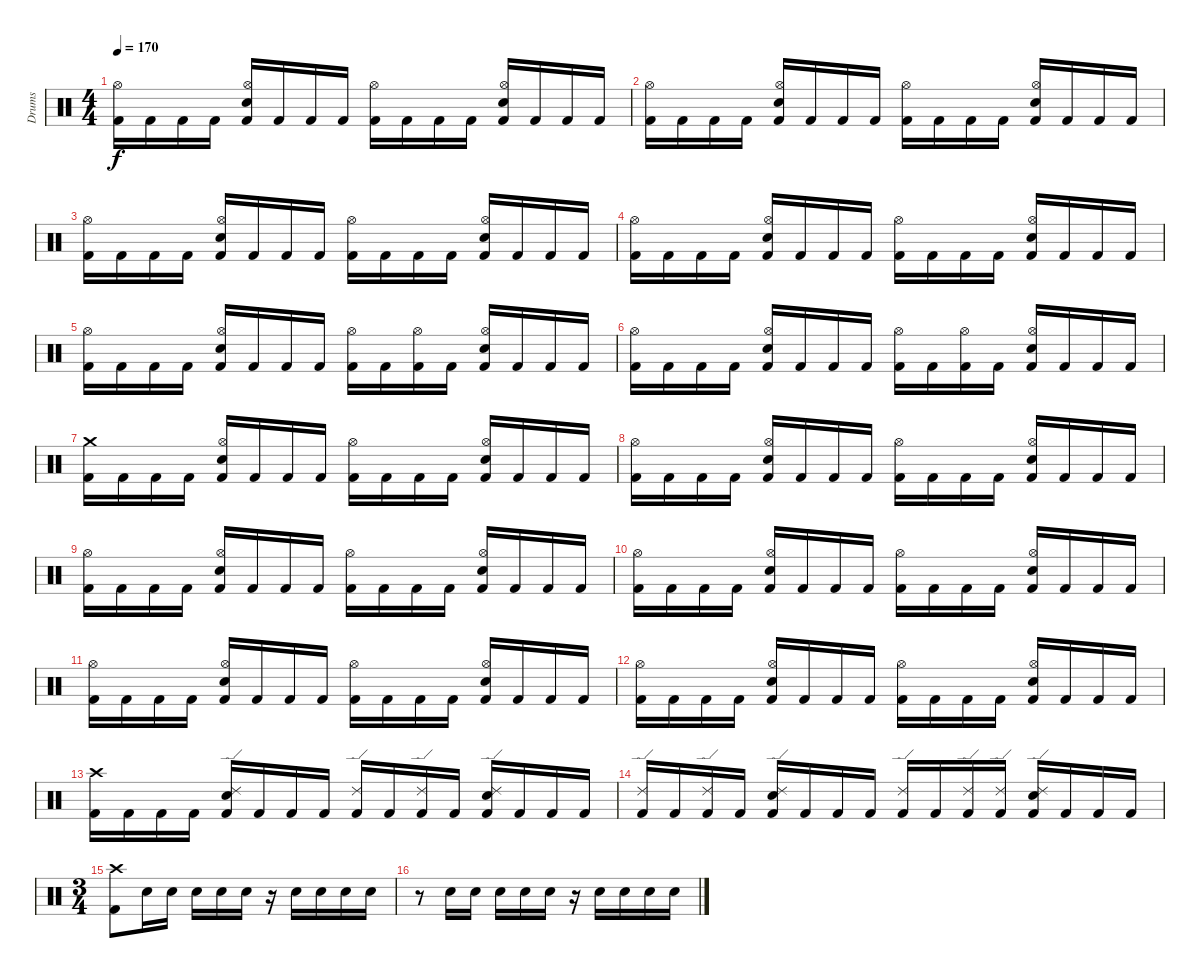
\track ("Drums" "Drums") {instrument percussion}
\staff {score}
\articulation defaults
\ts (4 4)
\tempo 170
\clef neutral
\ks c
("Kick (hit) 2" "Hi-Hat (open)").16{dy f} "Kick (hit) 2".16 "Kick (hit) 2".16 "Kick (hit) 2".16 ("Kick (hit) 2" "Snare (hit) 2" "Hi-Hat (open)").16 "Kick (hit) 2".16 "Kick (hit) 2".16 "Kick (hit) 2".16 ("Kick (hit) 2" "Hi-Hat (open)").16 "Kick (hit) 2".16 "Kick (hit) 2".16 "Kick (hit) 2".16 ("Kick (hit) 2" "Snare (hit) 2" "Hi-Hat (open)").16 "Kick (hit) 2".16 "Kick (hit) 2".16 "Kick (hit) 2".16 |
("Kick (hit) 2" "Hi-Hat (open)").16 "Kick (hit) 2".16 "Kick (hit) 2".16 "Kick (hit) 2".16 ("Kick (hit) 2" "Snare (hit) 2" "Hi-Hat (open)").16 "Kick (hit) 2".16 "Kick (hit) 2".16 "Kick (hit) 2".16 ("Kick (hit) 2" "Hi-Hat (open)").16 "Kick (hit) 2".16 "Kick (hit) 2".16 "Kick (hit) 2".16 ("Kick (hit) 2" "Snare (hit) 2" "Hi-Hat (open)").16 "Kick (hit) 2".16 "Kick (hit) 2".16 "Kick (hit) 2".16 |
("Kick (hit) 2" "Hi-Hat (open)").16 "Kick (hit) 2".16 "Kick (hit) 2".16 "Kick (hit) 2".16 ("Kick (hit) 2" "Snare (hit) 2" "Hi-Hat (open)").16 "Kick (hit) 2".16 "Kick (hit) 2".16 "Kick (hit) 2".16 ("Kick (hit) 2" "Hi-Hat (open)").16 "Kick (hit) 2".16 "Kick (hit) 2".16 "Kick (hit) 2".16 ("Kick (hit) 2" "Snare (hit) 2" "Hi-Hat (open)").16 "Kick (hit) 2".16 "Kick (hit) 2".16 "Kick (hit) 2".16 |
("Kick (hit) 2" "Hi-Hat (open)").16 "Kick (hit) 2".16 "Kick (hit) 2".16 "Kick (hit) 2".16 ("Kick (hit) 2" "Snare (hit) 2" "Hi-Hat (open)").16 "Kick (hit) 2".16 "Kick (hit) 2".16 "Kick (hit) 2".16 ("Kick (hit) 2" "Hi-Hat (open)").16 "Kick (hit) 2".16 "Kick (hit) 2".16 "Kick (hit) 2".16 ("Kick (hit) 2" "Snare (hit) 2" "Hi-Hat (open)").16 "Kick (hit) 2".16 "Kick (hit) 2".16 "Kick (hit) 2".16 |
("Kick (hit) 2" "Hi-Hat (open)").16 "Kick (hit) 2".16 "Kick (hit) 2".16 "Kick (hit) 2".16 ("Kick (hit) 2" "Snare (hit) 2" "Hi-Hat (open)").16 "Kick (hit) 2".16 "Kick (hit) 2".16 "Kick (hit) 2".16 ("Kick (hit) 2" "Hi-Hat (open)").16 "Kick (hit) 2".16 ("Kick (hit) 2" "Hi-Hat (open)").16 "Kick (hit) 2".16 ("Kick (hit) 2" "Snare (hit) 2" "Hi-Hat (open)").16 "Kick (hit) 2".16 "Kick (hit) 2".16 "Kick (hit) 2".16 |
("Kick (hit) 2" "Hi-Hat (open)").16 "Kick (hit) 2".16 "Kick (hit) 2".16 "Kick (hit) 2".16 ("Kick (hit) 2" "Snare (hit) 2" "Hi-Hat (open)").16 "Kick (hit) 2".16 "Kick (hit) 2".16 "Kick (hit) 2".16 ("Kick (hit) 2" "Hi-Hat (open)").16 "Kick (hit) 2".16 ("Kick (hit) 2" "Hi-Hat (open)").16 "Kick (hit) 2".16 ("Kick (hit) 2" "Snare (hit) 2" "Hi-Hat (open)").16 "Kick (hit) 2".16 "Kick (hit) 2".16 "Kick (hit) 2".16 |
("Kick (hit) 2" "Crash medium (hit)").16 "Kick (hit) 2".16 "Kick (hit) 2".16 "Kick (hit) 2".16 ("Kick (hit) 2" "Snare (hit) 2" "Hi-Hat (open)").16 "Kick (hit) 2".16 "Kick (hit) 2".16 "Kick (hit) 2".16 ("Kick (hit) 2" "Hi-Hat (open)").16 "Kick (hit) 2".16 "Kick (hit) 2".16 "Kick (hit) 2".16 ("Kick (hit) 2" "Snare (hit) 2" "Hi-Hat (open)").16 "Kick (hit) 2".16 "Kick (hit) 2".16 "Kick (hit) 2".16 |
("Kick (hit) 2" "Hi-Hat (open)").16 "Kick (hit) 2".16 "Kick (hit) 2".16 "Kick (hit) 2".16 ("Kick (hit) 2" "Snare (hit) 2" "Hi-Hat (open)").16 "Kick (hit) 2".16 "Kick (hit) 2".16 "Kick (hit) 2".16 ("Kick (hit) 2" "Hi-Hat (open)").16 "Kick (hit) 2".16 "Kick (hit) 2".16 "Kick (hit) 2".16 ("Kick (hit) 2" "Snare (hit) 2" "Hi-Hat (open)").16 "Kick (hit) 2".16 "Kick (hit) 2".16 "Kick (hit) 2".16 |
("Kick (hit) 2" "Hi-Hat (open)").16 "Kick (hit) 2".16 "Kick (hit) 2".16 "Kick (hit) 2".16 ("Kick (hit) 2" "Snare (hit) 2" "Hi-Hat (open)").16 "Kick (hit) 2".16 "Kick (hit) 2".16 "Kick (hit) 2".16 ("Kick (hit) 2" "Hi-Hat (open)").16 "Kick (hit) 2".16 "Kick (hit) 2".16 "Kick (hit) 2".16 ("Kick (hit) 2" "Snare (hit) 2" "Hi-Hat (open)").16 "Kick (hit) 2".16 "Kick (hit) 2".16 "Kick (hit) 2".16 |
("Kick (hit) 2" "Hi-Hat (open)").16 "Kick (hit) 2".16 "Kick (hit) 2".16 "Kick (hit) 2".16 ("Kick (hit) 2" "Snare (hit) 2" "Hi-Hat (open)").16 "Kick (hit) 2".16 "Kick (hit) 2".16 "Kick (hit) 2".16 ("Kick (hit) 2" "Hi-Hat (open)").16 "Kick (hit) 2".16 "Kick (hit) 2".16 "Kick (hit) 2".16 ("Kick (hit) 2" "Snare (hit) 2" "Hi-Hat (open)").16 "Kick (hit) 2".16 "Kick (hit) 2".16 "Kick (hit) 2".16 |
("Kick (hit) 2" "Hi-Hat (open)").16 "Kick (hit) 2".16 "Kick (hit) 2".16 "Kick (hit) 2".16 ("Kick (hit) 2" "Snare (hit) 2" "Hi-Hat (open)").16 "Kick (hit) 2".16 "Kick (hit) 2".16 "Kick (hit) 2".16 ("Kick (hit) 2" "Hi-Hat (open)").16 "Kick (hit) 2".16 "Kick (hit) 2".16 "Kick (hit) 2".16 ("Kick (hit) 2" "Snare (hit) 2" "Hi-Hat (open)").16 "Kick (hit) 2".16 "Kick (hit) 2".16 "Kick (hit) 2".16 |
("Kick (hit) 2" "Hi-Hat (open)").16 "Kick (hit) 2".16 "Kick (hit) 2".16 "Kick (hit) 2".16 ("Kick (hit) 2" "Snare (hit) 2" "Hi-Hat (open)").16 "Kick (hit) 2".16 "Kick (hit) 2".16 "Kick (hit) 2".16 ("Kick (hit) 2" "Hi-Hat (open)").16 "Kick (hit) 2".16 "Kick (hit) 2".16 "Kick (hit) 2".16 ("Kick (hit) 2" "Snare (hit) 2" "Hi-Hat (open)").16 "Kick (hit) 2".16 "Kick (hit) 2".16 "Kick (hit) 2".16 |
("Kick (hit) 2" "Crash high (hit)").16 "Kick (hit) 2".16 "Kick (hit) 2".16 "Kick (hit) 2".16 ("Kick (hit) 2" "Snare (hit) 2" "Ride (edge) 2").16 "Kick (hit) 2".16 "Kick (hit) 2".16 "Kick (hit) 2".16 ("Kick (hit) 2" "Ride (edge) 2").16 "Kick (hit) 2".16 ("Kick (hit) 2" "Ride (edge) 2").16 "Kick (hit) 2".16 ("Kick (hit) 2" "Snare (hit) 2" "Ride (edge) 2").16 "Kick (hit) 2".16 "Kick (hit) 2".16 "Kick (hit) 2".16 |
("Kick (hit) 2" "Ride (edge) 2").16 "Kick (hit) 2".16 ("Kick (hit) 2" "Ride (edge) 2").16 "Kick (hit) 2".16 ("Kick (hit) 2" "Snare (hit) 2" "Ride (edge) 2").16 "Kick (hit) 2".16 "Kick (hit) 2".16 "Kick (hit) 2".16 ("Kick (hit) 2" "Ride (edge) 2").16 "Kick (hit) 2".16 ("Kick (hit) 2" "Ride (edge) 2").16 ("Kick (hit) 2" "Ride (edge) 2").16 ("Kick (hit) 2" "Snare (hit) 2" "Ride (edge) 2").16 "Kick (hit) 2".16 "Kick (hit) 2".16 "Kick (hit) 2".16 |
\ts (3 4)
\section ("" "")
("Kick (hit) 2" "Crash high (hit)").8 "Snare (hit) 2".16 "Snare (hit) 2".16 "Snare (hit) 2".16 "Snare (hit) 2".16 "Snare (hit) 2".16 r.16 "Snare (hit) 2".16 "Snare (hit) 2".16 "Snare (hit) 2".16 "Snare (hit) 2".16 |
r.8 "Snare (hit) 2".16 "Snare (hit) 2".16 "Snare (hit) 2".16 "Snare (hit) 2".16 "Snare (hit) 2".16 r.16 "Snare (hit) 2".16 "Snare (hit) 2".16 "Snare (hit) 2".16 "Snare (hit) 2".16
